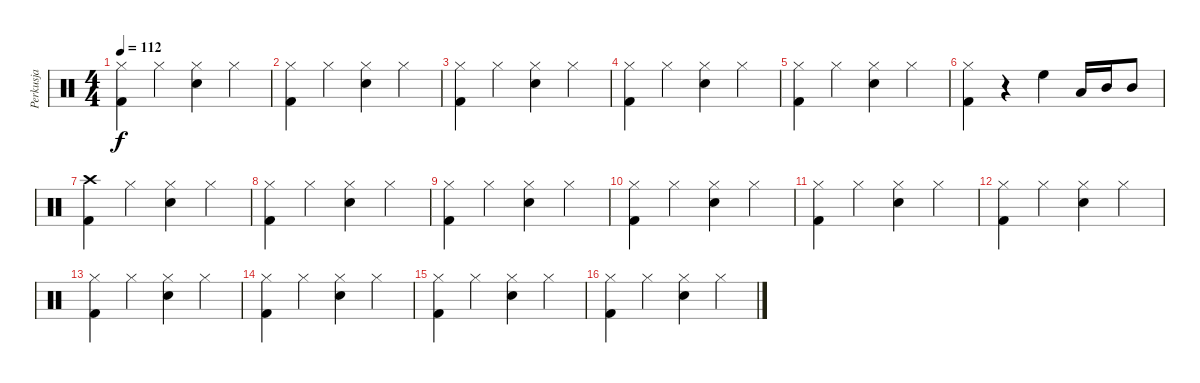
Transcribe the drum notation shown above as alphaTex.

\track ("Perkusja" "Perkusja") {instrument percussion}
\staff {score}
\articulation defaults
\ts (4 4)
\tempo 112
\clef neutral
\ks c
("Kick (hit) 2" "Hi-Hat (closed)").4{dy f} "Hi-Hat (closed)".4 ("Snare (hit) 2" "Hi-Hat (closed)").4 "Hi-Hat (closed)".4 |
("Kick (hit) 2" "Hi-Hat (closed)").4 "Hi-Hat (closed)".4 ("Snare (hit) 2" "Hi-Hat (closed)").4 "Hi-Hat (closed)".4 |
("Kick (hit) 2" "Hi-Hat (closed)").4 "Hi-Hat (closed)".4 ("Snare (hit) 2" "Hi-Hat (closed)").4 "Hi-Hat (closed)".4 |
("Kick (hit) 2" "Hi-Hat (closed)").4 "Hi-Hat (closed)".4 ("Snare (hit) 2" "Hi-Hat (closed)").4 "Hi-Hat (closed)".4 |
("Kick (hit) 2" "Hi-Hat (closed)").4 "Hi-Hat (closed)".4 ("Snare (hit) 2" "Hi-Hat (closed)").4 "Hi-Hat (closed)".4 |
("Kick (hit) 2" "Hi-Hat (closed)").4 r.4 "High Floor Tom (hit)".4 "Low Tom (hit)".16 "Mid Tom (hit)".16 "Mid Tom (hit)".8 |
("Kick (hit) 2" "Crash high (hit)").4 "Hi-Hat (closed)".4 ("Snare (hit) 2" "Hi-Hat (closed)").4 "Hi-Hat (closed)".4 |
("Kick (hit) 2" "Hi-Hat (closed)").4 "Hi-Hat (closed)".4 ("Snare (hit) 2" "Hi-Hat (closed)").4 "Hi-Hat (closed)".4 |
("Kick (hit) 2" "Hi-Hat (closed)").4 "Hi-Hat (closed)".4 ("Snare (hit) 2" "Hi-Hat (closed)").4 "Hi-Hat (closed)".4 |
("Kick (hit) 2" "Hi-Hat (closed)").4 "Hi-Hat (closed)".4 ("Snare (hit) 2" "Hi-Hat (closed)").4 "Hi-Hat (closed)".4 |
("Kick (hit) 2" "Hi-Hat (closed)").4 "Hi-Hat (closed)".4 ("Snare (hit) 2" "Hi-Hat (closed)").4 "Hi-Hat (closed)".4 |
("Kick (hit) 2" "Hi-Hat (closed)").4 "Hi-Hat (closed)".4 ("Snare (hit) 2" "Hi-Hat (closed)").4 "Hi-Hat (closed)".4 |
("Kick (hit) 2" "Hi-Hat (closed)").4 "Hi-Hat (closed)".4 ("Snare (hit) 2" "Hi-Hat (closed)").4 "Hi-Hat (closed)".4 |
("Kick (hit) 2" "Hi-Hat (closed)").4 "Hi-Hat (closed)".4 ("Snare (hit) 2" "Hi-Hat (closed)").4 "Hi-Hat (closed)".4 |
("Kick (hit) 2" "Hi-Hat (closed)").4 "Hi-Hat (closed)".4 ("Snare (hit) 2" "Hi-Hat (closed)").4 "Hi-Hat (closed)".4 |
("Kick (hit) 2" "Hi-Hat (closed)").4 "Hi-Hat (closed)".4 ("Snare (hit) 2" "Hi-Hat (closed)").4 "Hi-Hat (closed)".4
